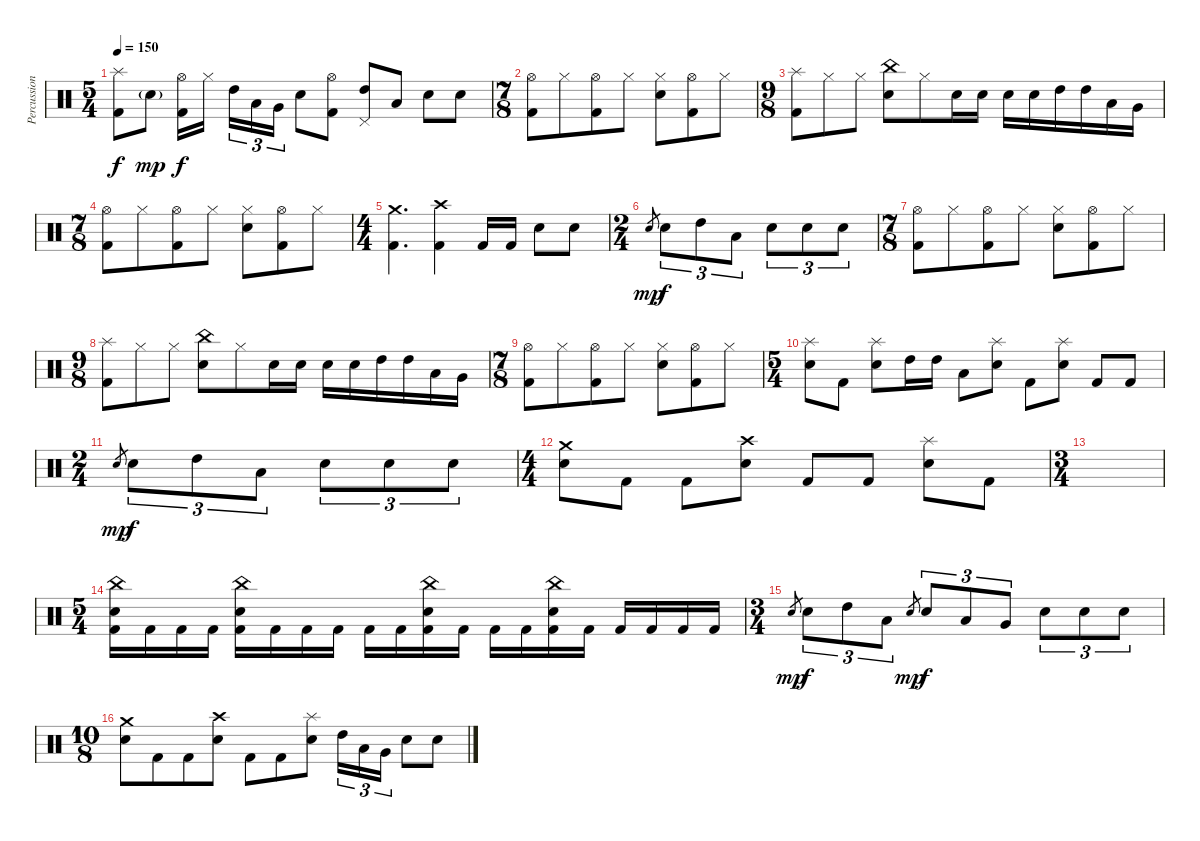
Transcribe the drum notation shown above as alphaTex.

\track ("Percussions" "Percussion") {instrument percussion}
\staff {score}
\articulation defaults
\ts (5 4)
\tempo 150
\clef neutral
\ks c
("Splash (hit)" "Kick (hit) 2").8{dy f} "Snare (hit) 2"{g}.8{dy mp} ("Hi-Hat (open)" "Kick (hit) 2").16{dy f} "Hi-Hat (closed)".16{beam splitsecondary} "High Tom (hit)".16{tu (3 2)} "Low Tom (hit)".16{tu (3 2)} "Very Low Tom (hit)".16{tu (3 2)} "Snare (hit) 2".8 ("Hi-Hat (open)" "Kick (hit) 2").8 ("Pedal Hi-Hat (hit)" "High Tom (hit)").8 "Low Tom (hit)".8 "Snare (hit) 2".8 "Snare (hit) 2".8 |
\ts (7 8)
("Hi-Hat (open)" "Kick (hit) 2").8 "Hi-Hat (closed)".8 ("Hi-Hat (open)" "Kick (hit) 2").8 "Hi-Hat (closed)".8 ("Hi-Hat (closed)" "Snare (hit) 2").8 ("Hi-Hat (open)" "Kick (hit) 2").8 "Hi-Hat (closed)".8 |
\ts (9 8)
("Splash (hit)" "Kick (hit) 2").8 "Hi-Hat (closed)".8 "Hi-Hat (closed)".8 ("China (hit)" "Snare (hit) 2").8 "Hi-Hat (closed)".8 "Snare (hit) 2".16 "Snare (hit) 2".16 "Snare (hit) 2".16 "Snare (hit) 2".16 "High Tom (hit)".16 "High Tom (hit)".16 "Low Tom (hit)".16 "Very Low Tom (hit)".16 |
\ts (7 8)
("Hi-Hat (open)" "Kick (hit) 2").8 "Hi-Hat (closed)".8 ("Hi-Hat (open)" "Kick (hit) 2").8 "Hi-Hat (closed)".8 ("Hi-Hat (closed)" "Snare (hit) 2").8 ("Hi-Hat (open)" "Kick (hit) 2").8 "Hi-Hat (closed)".8 |
\ts (4 4)
("Crash medium (hit)" "Kick (hit) 2").4{d} ("Crash high (hit)" "Kick (hit) 2").4 "Kick (hit) 2".16 "Kick (hit) 2".16 "Snare (hit) 2".8 "Snare (hit) 2".8 |
\ts (2 4)
"Snare (hit) 2".8{gr dy mp} "Snare (hit) 2".8{tu (3 2) dy f} "High Tom (hit)".8{tu (3 2)} "Low Tom (hit)".8{tu (3 2)} "Snare (hit) 2".8{tu (3 2)} "Snare (hit) 2".8{tu (3 2)} "Snare (hit) 2".8{tu (3 2)} |
\ts (7 8)
("Hi-Hat (open)" "Kick (hit) 2").8 "Hi-Hat (closed)".8 ("Hi-Hat (open)" "Kick (hit) 2").8 "Hi-Hat (closed)".8 ("Hi-Hat (closed)" "Snare (hit) 2").8 ("Hi-Hat (open)" "Kick (hit) 2").8 "Hi-Hat (closed)".8 |
\ts (9 8)
("Splash (hit)" "Kick (hit) 2").8 "Hi-Hat (closed)".8 "Hi-Hat (closed)".8 ("China (hit)" "Snare (hit) 2").8 "Hi-Hat (closed)".8 "Snare (hit) 2".16 "Snare (hit) 2".16 "Snare (hit) 2".16 "Snare (hit) 2".16 "High Tom (hit)".16 "High Tom (hit)".16 "Low Tom (hit)".16 "Very Low Tom (hit)".16 |
\ts (7 8)
("Hi-Hat (open)" "Kick (hit) 2").8 "Hi-Hat (closed)".8 ("Hi-Hat (open)" "Kick (hit) 2").8 "Hi-Hat (closed)".8 ("Hi-Hat (closed)" "Snare (hit) 2").8 ("Hi-Hat (open)" "Kick (hit) 2").8 "Hi-Hat (closed)".8 |
\ts (5 4)
("Splash (hit)" "Snare (hit) 2").8 "Kick (hit) 2".8 ("Splash (hit)" "Snare (hit) 2").8 "High Tom (hit)".16 "High Tom (hit)".16 "Low Tom (hit)".8 ("Splash (hit)" "Snare (hit) 2").8 "Kick (hit) 2".8 ("Splash (hit)" "Snare (hit) 2").8 "Kick (hit) 2".8 "Kick (hit) 2".8 |
\ts (2 4)
"Snare (hit) 2".8{gr dy mp} "Snare (hit) 2".8{tu (3 2) dy f} "High Tom (hit)".8{tu (3 2)} "Low Tom (hit)".8{tu (3 2)} "Snare (hit) 2".8{tu (3 2)} "Snare (hit) 2".8{tu (3 2)} "Snare (hit) 2".8{tu (3 2)} |
\ts (4 4)
("Crash medium (hit)" "Snare (hit) 2").8 "Kick (hit) 2".8 "Kick (hit) 2".8 ("Crash high (hit)" "Snare (hit) 2").8 "Kick (hit) 2".8 "Kick (hit) 2".8 ("Splash (hit)" "Snare (hit) 2").8 "Kick (hit) 2".8 |
\ts (3 4)
|
\ts (5 4)
("China (hit)" "Snare (hit) 2" "Kick (hit) 2").16 "Kick (hit) 2".16 "Kick (hit) 2".16 "Kick (hit) 2".16 ("China (hit)" "Snare (hit) 2" "Kick (hit) 2").16 "Kick (hit) 2".16 "Kick (hit) 2".16 "Kick (hit) 2".16 "Kick (hit) 2".16 "Kick (hit) 2".16 ("China (hit)" "Snare (hit) 2" "Kick (hit) 2").16 "Kick (hit) 2".16 "Kick (hit) 2".16 "Kick (hit) 2".16 ("China (hit)" "Snare (hit) 2" "Kick (hit) 2").16 "Kick (hit) 2".16 "Kick (hit) 2".16 "Kick (hit) 2".16 "Kick (hit) 2".16 "Kick (hit) 2".16 |
\ts (3 4)
"Snare (hit) 2".8{gr dy mp} "Snare (hit) 2".8{tu (3 2) dy f} "High Tom (hit)".8{tu (3 2)} "Low Tom (hit)".8{tu (3 2)} "Snare (hit) 2".8{gr dy mp} "Snare (hit) 2".8{tu (3 2) dy f} "Low Tom (hit)".8{tu (3 2)} "Very Low Tom (hit)".8{tu (3 2)} "Snare (hit) 2".8{tu (3 2)} "Snare (hit) 2".8{tu (3 2)} "Snare (hit) 2".8{tu (3 2)} |
\ts (10 8)
("Crash medium (hit)" "Snare (hit) 2").8 "Kick (hit) 2".8 "Kick (hit) 2".8 ("Crash high (hit)" "Snare (hit) 2").8 "Kick (hit) 2".8 "Kick (hit) 2".8 ("Splash (hit)" "Snare (hit) 2").8 "High Tom (hit)".16{tu (3 2)} "Low Tom (hit)".16{tu (3 2)} "Very Low Tom (hit)".16{tu (3 2)} "Snare (hit) 2".8 "Snare (hit) 2".8
